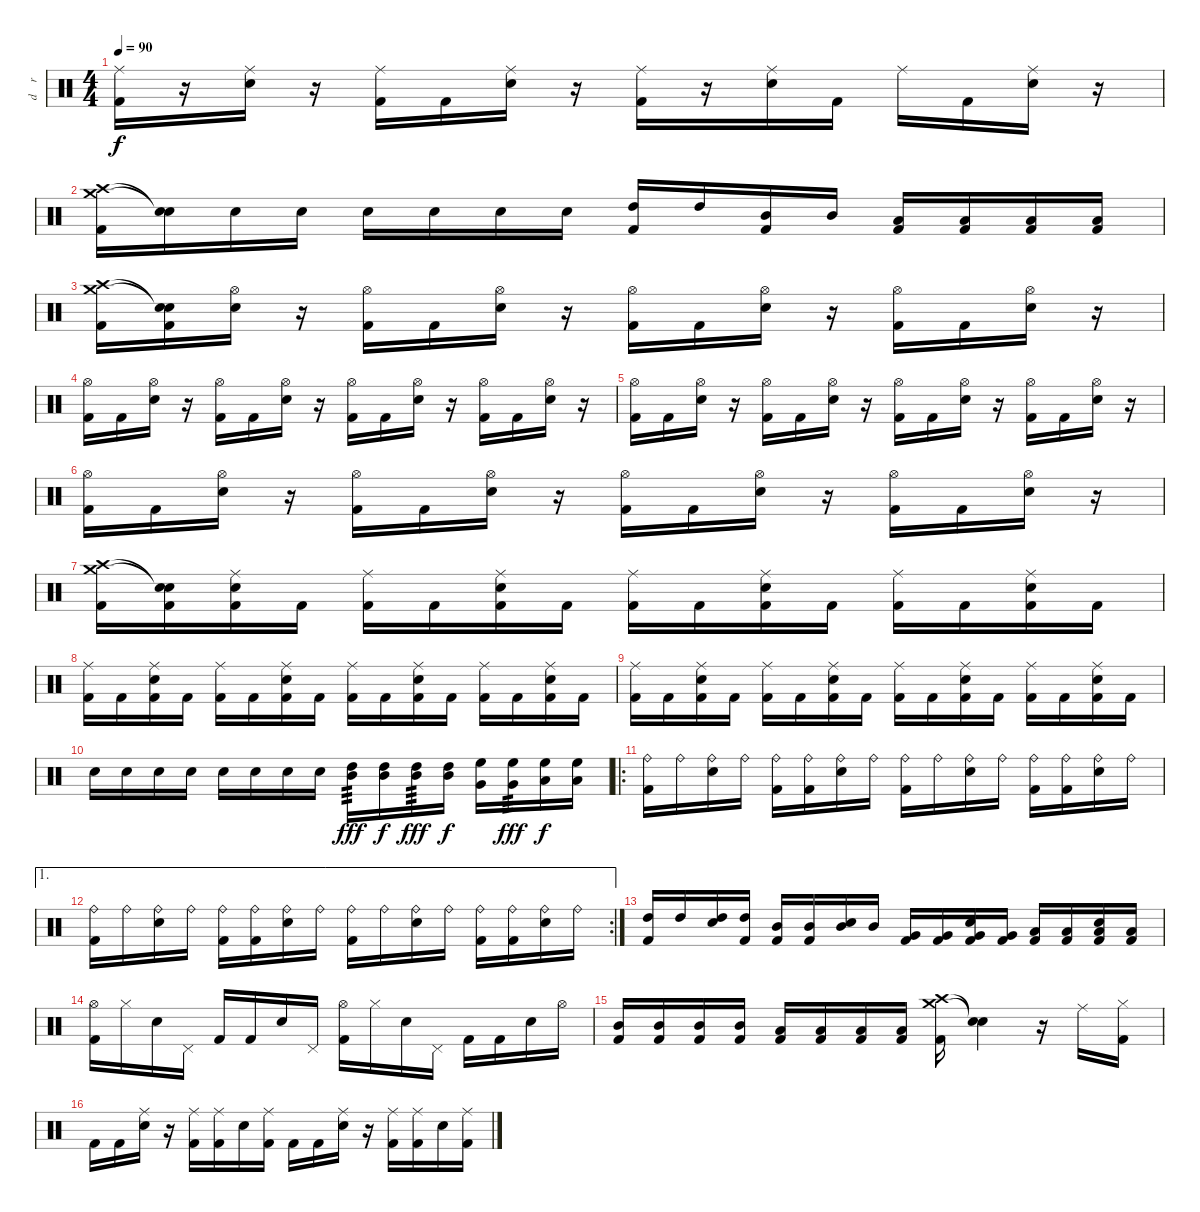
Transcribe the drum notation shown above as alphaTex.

\track ("d    r     u    m    s" "d    r    ") {instrument percussion}
\staff {score}
\articulation defaults
\ts (4 4)
\tempo 90
\clef neutral
\ks c
("Ride (middle)" "Kick (hit) 2").16{dy f} r.16 ("Ride (middle)" "Electric Snare (hit)").16 r.16 ("Ride (middle)" "Kick (hit) 2").16 "Kick (hit) 2".16 ("Ride (middle)" "Electric Snare (hit)").16 r.16 ("Ride (middle)" "Kick (hit) 2").16 r.16 ("Ride (middle)" "Electric Snare (hit)").16 "Kick (hit) 2".16 "Ride (middle)".16 "Kick (hit) 2".16 ("Ride (middle)" "Electric Snare (hit)").16 r.16 |
("Crash high (hit)" "Crash medium (hit)" "Kick (hit) 2").16 ("Snare (hit)"{t} "Snare (hit)"{t}).16 "Electric Snare (hit)".16 "Electric Snare (hit)".16 "Electric Snare (hit)".16 "Electric Snare (hit)".16 "Electric Snare (hit)".16 "Electric Snare (hit)".16 ("High Tom (hit)" "Kick (hit) 2").16 "High Tom (hit)".16 ("Mid Tom (hit)" "Kick (hit) 2").16 "Mid Tom (hit)".16 ("Low Tom (hit)" "Kick (hit) 2").16 ("Low Tom (hit)" "Kick (hit) 2").16 ("Low Floor Tom (hit)" "Kick (hit) 2").16 ("Low Floor Tom (hit)" "Kick (hit) 2").16 |
("Crash high (hit)" "Crash medium (hit)" "Kick (hit) 2").16 ("Snare (hit)"{t} "Snare (hit)"{t} "Kick (hit) 2").16 ("Hi-Hat (open)" "Electric Snare (hit)").16 r.16 ("Hi-Hat (open)" "Kick (hit) 2").16 "Kick (hit) 2".16 ("Hi-Hat (open)" "Electric Snare (hit)").16 r.16 ("Hi-Hat (open)" "Kick (hit) 2").16 "Kick (hit) 2".16 ("Hi-Hat (open)" "Electric Snare (hit)").16 r.16 ("Hi-Hat (open)" "Kick (hit) 2").16 "Kick (hit) 2".16 ("Hi-Hat (open)" "Electric Snare (hit)").16 r.16 |
("Hi-Hat (open)" "Kick (hit) 2").16 "Kick (hit) 2".16 ("Hi-Hat (open)" "Electric Snare (hit)").16 r.16 ("Hi-Hat (open)" "Kick (hit) 2").16 "Kick (hit) 2".16 ("Hi-Hat (open)" "Electric Snare (hit)").16 r.16 ("Hi-Hat (open)" "Kick (hit) 2").16 "Kick (hit) 2".16 ("Hi-Hat (open)" "Electric Snare (hit)").16 r.16 ("Hi-Hat (open)" "Kick (hit) 2").16 "Kick (hit) 2".16 ("Hi-Hat (open)" "Electric Snare (hit)").16 r.16 |
("Hi-Hat (open)" "Kick (hit) 2").16 "Kick (hit) 2".16 ("Hi-Hat (open)" "Electric Snare (hit)").16 r.16 ("Hi-Hat (open)" "Kick (hit) 2").16 "Kick (hit) 2".16 ("Hi-Hat (open)" "Electric Snare (hit)").16 r.16 ("Hi-Hat (open)" "Kick (hit) 2").16 "Kick (hit) 2".16 ("Hi-Hat (open)" "Electric Snare (hit)").16 r.16 ("Hi-Hat (open)" "Kick (hit) 2").16 "Kick (hit) 2".16 ("Hi-Hat (open)" "Electric Snare (hit)").16 r.16 |
("Hi-Hat (open)" "Kick (hit) 2").16 "Kick (hit) 2".16 ("Hi-Hat (open)" "Electric Snare (hit)").16 r.16 ("Hi-Hat (open)" "Kick (hit) 2").16 "Kick (hit) 2".16 ("Hi-Hat (open)" "Electric Snare (hit)").16 r.16 ("Hi-Hat (open)" "Kick (hit) 2").16 "Kick (hit) 2".16 ("Hi-Hat (open)" "Electric Snare (hit)").16 r.16 ("Hi-Hat (open)" "Kick (hit) 2").16 "Kick (hit) 2".16 ("Hi-Hat (open)" "Electric Snare (hit)").16 r.16 |
("Crash high (hit)" "Crash medium (hit)" "Kick (hit) 2").16 ("Snare (hit)"{t} "Snare (hit)"{t} "Kick (hit) 2").16 ("Ride (middle)" "Electric Snare (hit)" "Kick (hit) 2").16 "Kick (hit) 2".16 ("Ride (middle)" "Kick (hit) 2").16 "Kick (hit) 2".16 ("Ride (middle)" "Electric Snare (hit)" "Kick (hit) 2").16 "Kick (hit) 2".16 ("Ride (middle)" "Kick (hit) 2").16 "Kick (hit) 2".16 ("Ride (middle)" "Electric Snare (hit)" "Kick (hit) 2").16 "Kick (hit) 2".16 ("Ride (middle)" "Kick (hit) 2").16 "Kick (hit) 2".16 ("Ride (middle)" "Electric Snare (hit)" "Kick (hit) 2").16 "Kick (hit) 2".16 |
("Ride (middle)" "Kick (hit) 2").16 "Kick (hit) 2".16 ("Ride (middle)" "Electric Snare (hit)" "Kick (hit) 2").16 "Kick (hit) 2".16 ("Ride (middle)" "Kick (hit) 2").16 "Kick (hit) 2".16 ("Ride (middle)" "Electric Snare (hit)" "Kick (hit) 2").16 "Kick (hit) 2".16 ("Ride (middle)" "Kick (hit) 2").16 "Kick (hit) 2".16 ("Ride (middle)" "Electric Snare (hit)" "Kick (hit) 2").16 "Kick (hit) 2".16 ("Ride (middle)" "Kick (hit) 2").16 "Kick (hit) 2".16 ("Ride (middle)" "Electric Snare (hit)" "Kick (hit) 2").16 "Kick (hit) 2".16 |
("Ride (middle)" "Kick (hit) 2").16 "Kick (hit) 2".16 ("Ride (middle)" "Electric Snare (hit)" "Kick (hit) 2").16 "Kick (hit) 2".16 ("Ride (middle)" "Kick (hit) 2").16 "Kick (hit) 2".16 ("Ride (middle)" "Electric Snare (hit)" "Kick (hit) 2").16 "Kick (hit) 2".16 ("Ride (middle)" "Kick (hit) 2").16 "Kick (hit) 2".16 ("Ride (middle)" "Electric Snare (hit)" "Kick (hit) 2").16 "Kick (hit) 2".16 ("Ride (middle)" "Kick (hit) 2").16 "Kick (hit) 2".16 ("Ride (middle)" "Electric Snare (hit)" "Kick (hit) 2").16 "Kick (hit) 2".16 |
"Electric Snare (hit)".16 "Electric Snare (hit)".16 "Electric Snare (hit)".16 "Electric Snare (hit)".16 "Electric Snare (hit)".16 "Electric Snare (hit)".16 "Electric Snare (hit)".16 "Electric Snare (hit)".16 ("Mid Tom (hit)" "High Tom (hit)").16{tp 3 dy fff} ("Mid Tom (hit)" "High Tom (hit)").16{dy f} ("Mid Tom (hit)" "High Tom (hit)").16{tp 3 dy fff} ("Mid Tom (hit)" "High Tom (hit)").16{dy f} ("Very Low Tom (hit)" "High Floor Tom (hit)").16 ("Very Low Tom (hit)" "High Floor Tom (hit)").16{tp 3 dy fff} ("Low Floor Tom (hit)" "High Floor Tom (hit)").16{dy f} ("Low Floor Tom (hit)" "High Floor Tom (hit)").16 |
\ro
("Ride (bell)" "Kick (hit) 2").16 "Ride (bell)".16 ("Ride (bell)" "Electric Snare (hit)").16 "Ride (bell)".16 ("Ride (bell)" "Kick (hit) 2").16 ("Ride (bell)" "Kick (hit) 2").16 ("Ride (bell)" "Electric Snare (hit)").16 "Ride (bell)".16 ("Ride (bell)" "Kick (hit) 2").16 "Ride (bell)".16 ("Ride (bell)" "Electric Snare (hit)").16 "Ride (bell)".16 ("Ride (bell)" "Kick (hit) 2").16 ("Ride (bell)" "Kick (hit) 2").16 ("Ride (bell)" "Electric Snare (hit)").16 "Ride (bell)".16 |
\ae 1
\rc 2
("Ride (bell)" "Kick (hit) 2").16 "Ride (bell)".16 ("Ride (bell)" "Electric Snare (hit)").16 "Ride (bell)".16 ("Ride (bell)" "Kick (hit) 2").16 ("Ride (bell)" "Kick (hit) 2").16 ("Ride (bell)" "Electric Snare (hit)").16 "Ride (bell)".16 ("Ride (bell)" "Kick (hit) 2").16 "Ride (bell)".16 ("Ride (bell)" "Electric Snare (hit)").16 "Ride (bell)".16 ("Ride (bell)" "Kick (hit) 2").16 ("Ride (bell)" "Kick (hit) 2").16 ("Ride (bell)" "Electric Snare (hit)").16 "Ride (bell)".16 |
("High Tom (hit)" "Kick (hit) 2").16 "High Tom (hit)".16 ("Electric Snare (hit)" "High Tom (hit)").16 ("High Tom (hit)" "Kick (hit) 2").16 ("Mid Tom (hit)" "Kick (hit) 2").16 ("Mid Tom (hit)" "Kick (hit) 2").16 ("Electric Snare (hit)" "Mid Tom (hit)").16 "Mid Tom (hit)".16 ("Very Low Tom (hit)" "Kick (hit) 2").16 ("Very Low Tom (hit)" "Kick (hit) 2").16 ("Electric Snare (hit)" "Very Low Tom (hit)" "Kick (hit) 2").16 ("Very Low Tom (hit)" "Kick (hit) 2").16 ("Low Floor Tom (hit)" "Kick (hit) 2").16 ("Low Floor Tom (hit)" "Kick (hit) 2").16 ("Electric Snare (hit)" "Low Floor Tom (hit)" "Kick (hit) 2").16 ("Low Floor Tom (hit)" "Kick (hit) 2").16 |
("Hi-Hat (open)" "Kick (hit) 2").16 "Hi-Hat (closed)".16 "Electric Snare (hit)".16 "Pedal Hi-Hat (hit)".16 "Kick (hit) 2".16 "Kick (hit) 2".16 "Electric Snare (hit)".16 "Pedal Hi-Hat (hit)".16 ("Hi-Hat (open)" "Kick (hit) 2").16 "Hi-Hat (closed)".16 "Electric Snare (hit)".16 "Pedal Hi-Hat (hit)".16 "Kick (hit) 2".16 "Kick (hit) 2".16 "Electric Snare (hit)".16 "Hi-Hat (open)".16 |
("Mid Tom (hit)" "Kick (hit) 2").16 ("Mid Tom (hit)" "Kick (hit) 2").16 ("Mid Tom (hit)" "Kick (hit) 2").16 ("Mid Tom (hit)" "Kick (hit) 2").16 ("Low Tom (hit)" "Kick (hit) 2").16 ("Low Tom (hit)" "Kick (hit) 2").16 ("Low Tom (hit)" "Kick (hit) 2").16 ("Low Tom (hit)" "Kick (hit) 2").16 ("Crash high (hit)" "Crash medium (hit)" "Kick (hit) 2").16 ("Snare (hit)"{t} "Snare (hit)"{t}).4 r.16 "Ride (middle)".16 ("Hi-Hat (closed)" "Kick (hit) 2").16 |
"Kick (hit) 2".16 "Kick (hit) 2".16 ("Ride (middle)" "Electric Snare (hit)").16 r.16 ("Ride (middle)" "Kick (hit) 2").16 ("Ride (middle)" "Kick (hit) 2").16 "Electric Snare (hit)".16 ("Ride (middle)" "Kick (hit) 2").16 "Kick (hit) 2".16 "Kick (hit) 2".16 ("Ride (middle)" "Electric Snare (hit)").16 r.16 ("Ride (middle)" "Kick (hit) 2").16 ("Ride (middle)" "Kick (hit) 2").16 "Electric Snare (hit)".16 ("Ride (middle)" "Kick (hit) 2").16
